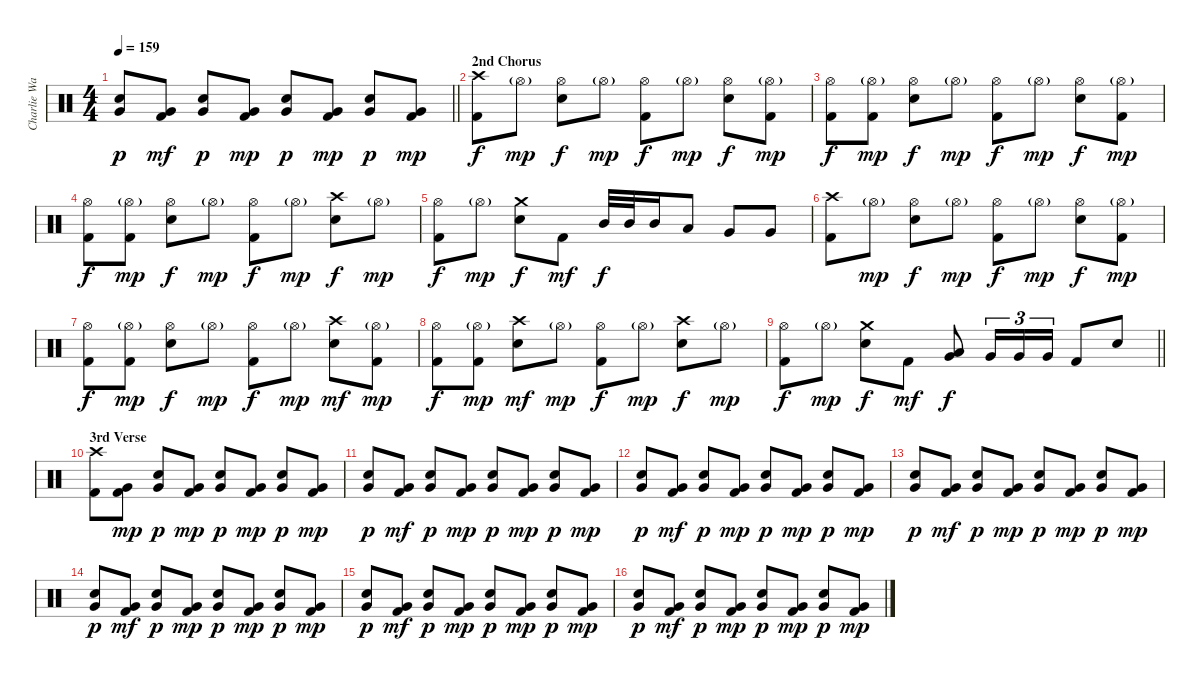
\track ("Charlie Watts (Drums)" "Charlie Wa") {instrument percussion}
\staff {score}
\articulation defaults
\ts (4 4)
\tempo 159
\clef neutral
\barLineRight lightlight
\ks c
("Very Low Tom (hit)" "Electric Snare (hit)").8{dy p} ("Very Low Tom (hit)" "Kick (hit) 2").8{dy mf} ("Very Low Tom (hit)" "Electric Snare (hit)").8{dy p} ("Very Low Tom (hit)" "Kick (hit) 2").8{dy mp} ("Very Low Tom (hit)" "Electric Snare (hit)").8{dy p} ("Very Low Tom (hit)" "Kick (hit) 2").8{dy mp} ("Very Low Tom (hit)" "Electric Snare (hit)").8{dy p} ("Very Low Tom (hit)" "Kick (hit) 2").8{dy mp} |
\section ("" "2nd Chorus")
("Crash high (hit)" "Kick (hit) 2").8{dy f} "Hi-Hat (open)"{g}.8{dy mp} ("Hi-Hat (open)" "Electric Snare (hit)").8{dy f} "Hi-Hat (open)"{g}.8{dy mp} ("Hi-Hat (open)" "Kick (hit) 2").8{dy f} "Hi-Hat (open)"{g}.8{dy mp} ("Hi-Hat (open)" "Electric Snare (hit)").8{dy f} ("Hi-Hat (open)"{g} "Kick (hit) 2").8{dy mp} |
("Hi-Hat (open)" "Kick (hit) 2").8{dy f} ("Hi-Hat (open)"{g} "Kick (hit) 2").8{dy mp} ("Hi-Hat (open)" "Electric Snare (hit)").8{dy f} "Hi-Hat (open)"{g}.8{dy mp} ("Hi-Hat (open)" "Kick (hit) 2").8{dy f} "Hi-Hat (open)"{g}.8{dy mp} ("Hi-Hat (open)" "Electric Snare (hit)").8{dy f} ("Hi-Hat (open)"{g} "Kick (hit) 2").8{dy mp} |
("Hi-Hat (open)" "Kick (hit) 2").8{dy f} ("Hi-Hat (open)"{g} "Kick (hit) 2").8{dy mp} ("Hi-Hat (open)" "Electric Snare (hit)").8{dy f} "Hi-Hat (open)"{g}.8{dy mp} ("Hi-Hat (open)" "Kick (hit) 2").8{dy f} "Hi-Hat (open)"{g}.8{dy mp} ("Crash high (hit)" "Electric Snare (hit)").8{dy f} "Hi-Hat (open)"{g}.8{dy mp} |
("Hi-Hat (open)" "Kick (hit) 2").8{dy f} "Hi-Hat (open)"{g}.8{dy mp} ("Crash medium (hit)" "Electric Snare (hit)").8{dy f} "Kick (hit) 2".8{dy mf} "Mid Tom (hit)".32{dy f} "Mid Tom (hit)".32 "Mid Tom (hit)".16 "Low Tom (hit)".8 "Very Low Tom (hit)".8 "Very Low Tom (hit)".8 |
("Crash high (hit)" "Kick (hit) 2").8 "Hi-Hat (open)"{g}.8{dy mp} ("Hi-Hat (open)" "Electric Snare (hit)").8{dy f} "Hi-Hat (open)"{g}.8{dy mp} ("Hi-Hat (open)" "Kick (hit) 2").8{dy f} "Hi-Hat (open)"{g}.8{dy mp} ("Hi-Hat (open)" "Electric Snare (hit)").8{dy f} ("Hi-Hat (open)"{g} "Kick (hit) 2").8{dy mp} |
("Hi-Hat (open)" "Kick (hit) 2").8{dy f} ("Hi-Hat (open)"{g} "Kick (hit) 2").8{dy mp} ("Hi-Hat (open)" "Electric Snare (hit)").8{dy f} "Hi-Hat (open)"{g}.8{dy mp} ("Hi-Hat (open)" "Kick (hit) 2").8{dy f} "Hi-Hat (open)"{g}.8{dy mp} ("Crash high (hit)" "Electric Snare (hit)").8{dy mf} ("Hi-Hat (open)"{g} "Kick (hit) 2").8{dy mp} |
("Hi-Hat (open)" "Kick (hit) 2").8{dy f} ("Hi-Hat (open)"{g} "Kick (hit) 2").8{dy mp} ("Crash high (hit)" "Electric Snare (hit)").8{dy mf} "Hi-Hat (open)"{g}.8{dy mp} ("Hi-Hat (open)" "Kick (hit) 2").8{dy f} "Hi-Hat (open)"{g}.8{dy mp} ("Crash high (hit)" "Electric Snare (hit)").8{dy f} "Hi-Hat (open)"{g}.8{dy mp} |
\barLineRight lightlight
("Hi-Hat (open)" "Kick (hit) 2").8{dy f} "Hi-Hat (open)"{g}.8{dy mp} ("Crash medium (hit)" "Electric Snare (hit)").8{dy f} "Kick (hit) 2".8{dy mf} ("Low Tom (hit)" "Very Low Tom (hit)").8{dy f} "Very Low Tom (hit)".16{tu (3 2)} "Very Low Tom (hit)".16{tu (3 2)} "Very Low Tom (hit)".16{tu (3 2)} "Kick (hit) 2".8 "Electric Snare (hit)".8 |
\section ("" "3rd Verse")
("Crash high (hit)" "Kick (hit) 2").8 ("Very Low Tom (hit)" "Kick (hit) 2").8{dy mp} ("Very Low Tom (hit)" "Electric Snare (hit)").8{dy p} ("Very Low Tom (hit)" "Kick (hit) 2").8{dy mp} ("Very Low Tom (hit)" "Electric Snare (hit)").8{dy p} ("Very Low Tom (hit)" "Kick (hit) 2").8{dy mp} ("Very Low Tom (hit)" "Electric Snare (hit)").8{dy p} ("Very Low Tom (hit)" "Kick (hit) 2").8{dy mp} |
("Very Low Tom (hit)" "Electric Snare (hit)").8{dy p} ("Very Low Tom (hit)" "Kick (hit) 2").8{dy mf} ("Very Low Tom (hit)" "Electric Snare (hit)").8{dy p} ("Very Low Tom (hit)" "Kick (hit) 2").8{dy mp} ("Very Low Tom (hit)" "Electric Snare (hit)").8{dy p} ("Very Low Tom (hit)" "Kick (hit) 2").8{dy mp} ("Very Low Tom (hit)" "Electric Snare (hit)").8{dy p} ("Very Low Tom (hit)" "Kick (hit) 2").8{dy mp} |
("Very Low Tom (hit)" "Electric Snare (hit)").8{dy p} ("Very Low Tom (hit)" "Kick (hit) 2").8{dy mf} ("Very Low Tom (hit)" "Electric Snare (hit)").8{dy p} ("Very Low Tom (hit)" "Kick (hit) 2").8{dy mp} ("Very Low Tom (hit)" "Electric Snare (hit)").8{dy p} ("Very Low Tom (hit)" "Kick (hit) 2").8{dy mp} ("Very Low Tom (hit)" "Electric Snare (hit)").8{dy p} ("Very Low Tom (hit)" "Kick (hit) 2").8{dy mp} |
("Very Low Tom (hit)" "Electric Snare (hit)").8{dy p} ("Very Low Tom (hit)" "Kick (hit) 2").8{dy mf} ("Very Low Tom (hit)" "Electric Snare (hit)").8{dy p} ("Very Low Tom (hit)" "Kick (hit) 2").8{dy mp} ("Very Low Tom (hit)" "Electric Snare (hit)").8{dy p} ("Very Low Tom (hit)" "Kick (hit) 2").8{dy mp} ("Very Low Tom (hit)" "Electric Snare (hit)").8{dy p} ("Very Low Tom (hit)" "Kick (hit) 2").8{dy mp} |
("Very Low Tom (hit)" "Electric Snare (hit)").8{dy p} ("Very Low Tom (hit)" "Kick (hit) 2").8{dy mf} ("Very Low Tom (hit)" "Electric Snare (hit)").8{dy p} ("Very Low Tom (hit)" "Kick (hit) 2").8{dy mp} ("Very Low Tom (hit)" "Electric Snare (hit)").8{dy p} ("Very Low Tom (hit)" "Kick (hit) 2").8{dy mp} ("Very Low Tom (hit)" "Electric Snare (hit)").8{dy p} ("Very Low Tom (hit)" "Kick (hit) 2").8{dy mp} |
("Very Low Tom (hit)" "Electric Snare (hit)").8{dy p} ("Very Low Tom (hit)" "Kick (hit) 2").8{dy mf} ("Very Low Tom (hit)" "Electric Snare (hit)").8{dy p} ("Very Low Tom (hit)" "Kick (hit) 2").8{dy mp} ("Very Low Tom (hit)" "Electric Snare (hit)").8{dy p} ("Very Low Tom (hit)" "Kick (hit) 2").8{dy mp} ("Very Low Tom (hit)" "Electric Snare (hit)").8{dy p} ("Very Low Tom (hit)" "Kick (hit) 2").8{dy mp} |
("Very Low Tom (hit)" "Electric Snare (hit)").8{dy p} ("Very Low Tom (hit)" "Kick (hit) 2").8{dy mf} ("Very Low Tom (hit)" "Electric Snare (hit)").8{dy p} ("Very Low Tom (hit)" "Kick (hit) 2").8{dy mp} ("Very Low Tom (hit)" "Electric Snare (hit)").8{dy p} ("Very Low Tom (hit)" "Kick (hit) 2").8{dy mp} ("Very Low Tom (hit)" "Electric Snare (hit)").8{dy p} ("Very Low Tom (hit)" "Kick (hit) 2").8{dy mp}
